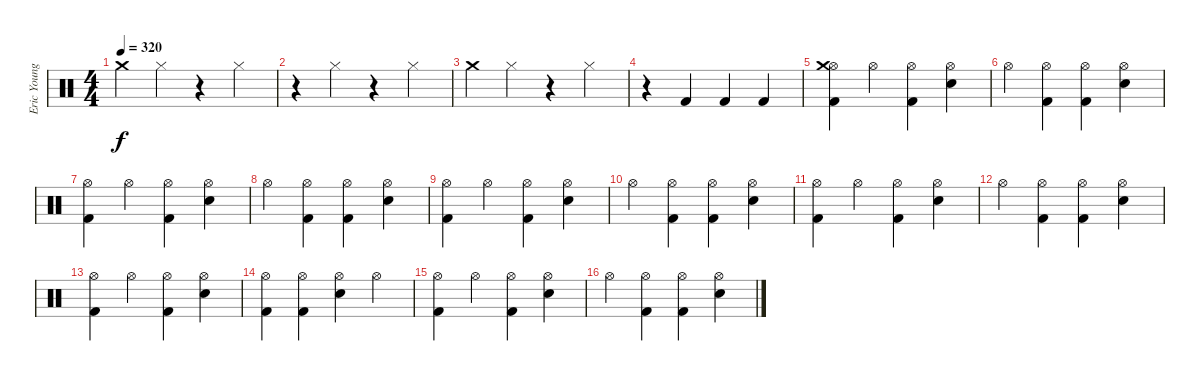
\track ("Eric Young (Drums)" "Eric Young") {instrument percussion}
\staff {score}
\articulation defaults
\ts (4 4)
\tempo 320
\clef neutral
\ks c "Crash medium (hit)".4{dy f} "Hi-Hat (closed)".4
r.4 "Hi-Hat (closed)".4 |
r.4 "Hi-Hat (closed)".4 r.4 "Hi-Hat (closed)".4 |
"Crash medium (hit)".4 "Hi-Hat (closed)".4 r.4 "Hi-Hat (closed)".4 |
r.4 "Kick (hit) 2".4 "Kick (hit) 2".4 "Kick (hit) 2".4 |
("Hi-Hat (open)" "Kick (hit) 2" "Crash medium (hit)").4 "Hi-Hat (open)".4 ("Hi-Hat (open)" "Kick (hit) 2").4 ("Hi-Hat (open)" "Snare (hit) 2").4 |
"Hi-Hat (open)".4 ("Hi-Hat (open)" "Kick (hit) 2").4 ("Hi-Hat (open)" "Kick (hit) 2").4 ("Hi-Hat (open)" "Snare (hit) 2").4 |
("Hi-Hat (open)" "Kick (hit) 2").4 "Hi-Hat (open)".4 ("Hi-Hat (open)" "Kick (hit) 2").4 ("Hi-Hat (open)" "Snare (hit) 2").4 |
"Hi-Hat (open)".4 ("Hi-Hat (open)" "Kick (hit) 2").4 ("Hi-Hat (open)" "Kick (hit) 2").4 ("Hi-Hat (open)" "Snare (hit) 2").4 |
("Hi-Hat (open)" "Kick (hit) 2").4 "Hi-Hat (open)".4 ("Hi-Hat (open)" "Kick (hit) 2").4 ("Hi-Hat (open)" "Snare (hit) 2").4 |
"Hi-Hat (open)".4 ("Hi-Hat (open)" "Kick (hit) 2").4 ("Hi-Hat (open)" "Kick (hit) 2").4 ("Hi-Hat (open)" "Snare (hit) 2").4 |
("Hi-Hat (open)" "Kick (hit) 2").4 "Hi-Hat (open)".4 ("Hi-Hat (open)" "Kick (hit) 2").4 ("Hi-Hat (open)" "Snare (hit) 2").4 |
"Hi-Hat (open)".4 ("Hi-Hat (open)" "Kick (hit) 2").4 ("Hi-Hat (open)" "Kick (hit) 2").4 ("Hi-Hat (open)" "Snare (hit) 2").4 |
("Hi-Hat (open)" "Kick (hit) 2").4 "Hi-Hat (open)".4 ("Hi-Hat (open)" "Kick (hit) 2").4 ("Hi-Hat (open)" "Snare (hit) 2").4 |
("Hi-Hat (open)" "Kick (hit) 2").4 ("Hi-Hat (open)" "Kick (hit) 2").4 ("Hi-Hat (open)" "Snare (hit) 2").4 "Hi-Hat (open)".4 |
("Hi-Hat (open)" "Kick (hit) 2").4 "Hi-Hat (open)".4 ("Hi-Hat (open)" "Kick (hit) 2").4 ("Hi-Hat (open)" "Snare (hit) 2").4 |
"Hi-Hat (open)".4 ("Hi-Hat (open)" "Kick (hit) 2").4 ("Hi-Hat (open)" "Kick (hit) 2").4 ("Hi-Hat (open)" "Snare (hit) 2").4
